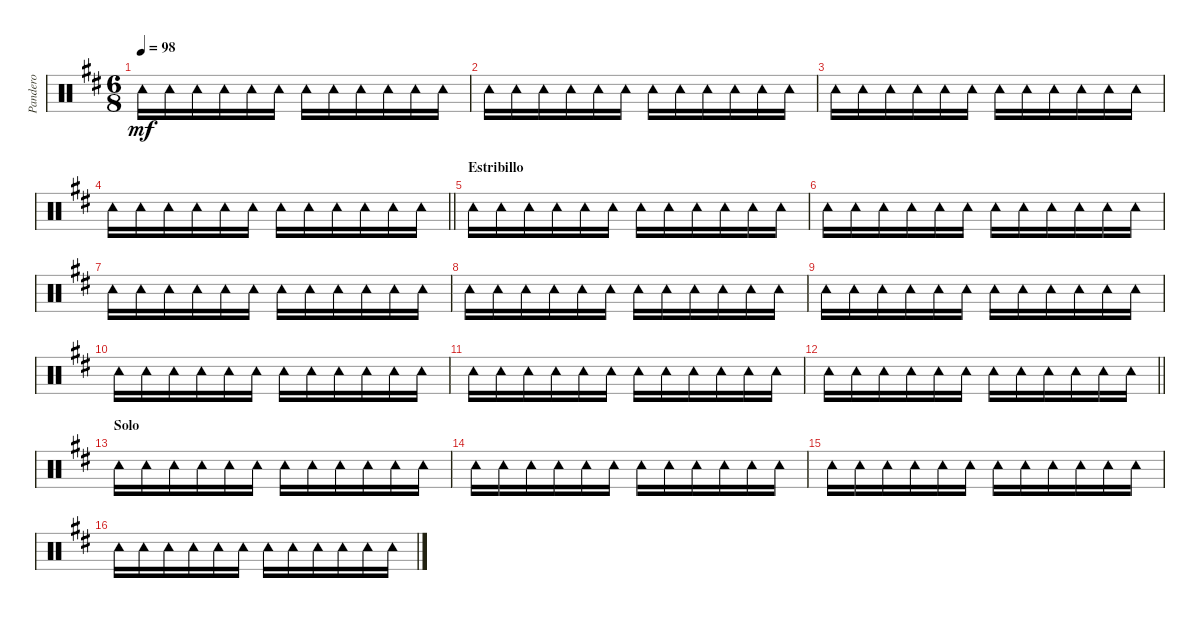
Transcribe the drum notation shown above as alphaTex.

\track ("Pandero" "Pandero") {instrument percussion}
\staff {score}
\articulation defaults
\ts (6 8)
\tempo 98
\clef neutral
\ks d "Tambourine (hit)".16{dy mf} "Tambourine (hit)".16 "Tambourine (hit)".16 "Tambourine (hit)".16 "Tambourine (hit)".16 "Tambourine (hit)".16 "Tambourine (hit)".16 "Tambourine (hit)".16 "Tambourine (hit)".16 "Tambourine (hit)".16 "Tambourine (hit)".16 "Tambourine (hit)".16
|
"Tambourine (hit)".16 "Tambourine (hit)".16 "Tambourine (hit)".16 "Tambourine (hit)".16 "Tambourine (hit)".16 "Tambourine (hit)".16 "Tambourine (hit)".16 "Tambourine (hit)".16 "Tambourine (hit)".16 "Tambourine (hit)".16 "Tambourine (hit)".16 "Tambourine (hit)".16 |
"Tambourine (hit)".16 "Tambourine (hit)".16 "Tambourine (hit)".16 "Tambourine (hit)".16 "Tambourine (hit)".16 "Tambourine (hit)".16 "Tambourine (hit)".16 "Tambourine (hit)".16 "Tambourine (hit)".16 "Tambourine (hit)".16 "Tambourine (hit)".16 "Tambourine (hit)".16 |
\barLineRight lightlight "Tambourine (hit)".16 "Tambourine (hit)".16 "Tambourine (hit)".16 "Tambourine (hit)".16 "Tambourine (hit)".16 "Tambourine (hit)".16 "Tambourine (hit)".16 "Tambourine (hit)".16 "Tambourine (hit)".16 "Tambourine (hit)".16 "Tambourine (hit)".16 "Tambourine (hit)".16
|
\section ("" "Estribillo")
"Tambourine (hit)".16 "Tambourine (hit)".16 "Tambourine (hit)".16 "Tambourine (hit)".16 "Tambourine (hit)".16 "Tambourine (hit)".16 "Tambourine (hit)".16 "Tambourine (hit)".16 "Tambourine (hit)".16 "Tambourine (hit)".16 "Tambourine (hit)".16 "Tambourine (hit)".16 |
"Tambourine (hit)".16 "Tambourine (hit)".16 "Tambourine (hit)".16 "Tambourine (hit)".16 "Tambourine (hit)".16 "Tambourine (hit)".16 "Tambourine (hit)".16 "Tambourine (hit)".16 "Tambourine (hit)".16 "Tambourine (hit)".16 "Tambourine (hit)".16 "Tambourine (hit)".16 |
"Tambourine (hit)".16 "Tambourine (hit)".16 "Tambourine (hit)".16 "Tambourine (hit)".16 "Tambourine (hit)".16 "Tambourine (hit)".16 "Tambourine (hit)".16 "Tambourine (hit)".16 "Tambourine (hit)".16 "Tambourine (hit)".16 "Tambourine (hit)".16 "Tambourine (hit)".16 |
"Tambourine (hit)".16 "Tambourine (hit)".16 "Tambourine (hit)".16 "Tambourine (hit)".16 "Tambourine (hit)".16 "Tambourine (hit)".16 "Tambourine (hit)".16 "Tambourine (hit)".16 "Tambourine (hit)".16 "Tambourine (hit)".16 "Tambourine (hit)".16 "Tambourine (hit)".16 |
"Tambourine (hit)".16 "Tambourine (hit)".16 "Tambourine (hit)".16 "Tambourine (hit)".16 "Tambourine (hit)".16 "Tambourine (hit)".16 "Tambourine (hit)".16 "Tambourine (hit)".16 "Tambourine (hit)".16 "Tambourine (hit)".16 "Tambourine (hit)".16 "Tambourine (hit)".16 |
"Tambourine (hit)".16 "Tambourine (hit)".16 "Tambourine (hit)".16 "Tambourine (hit)".16 "Tambourine (hit)".16 "Tambourine (hit)".16 "Tambourine (hit)".16 "Tambourine (hit)".16 "Tambourine (hit)".16 "Tambourine (hit)".16 "Tambourine (hit)".16 "Tambourine (hit)".16 |
"Tambourine (hit)".16 "Tambourine (hit)".16 "Tambourine (hit)".16 "Tambourine (hit)".16 "Tambourine (hit)".16 "Tambourine (hit)".16 "Tambourine (hit)".16 "Tambourine (hit)".16 "Tambourine (hit)".16 "Tambourine (hit)".16 "Tambourine (hit)".16 "Tambourine (hit)".16 |
\barLineRight lightlight "Tambourine (hit)".16 "Tambourine (hit)".16 "Tambourine (hit)".16 "Tambourine (hit)".16 "Tambourine (hit)".16 "Tambourine (hit)".16 "Tambourine (hit)".16 "Tambourine (hit)".16 "Tambourine (hit)".16 "Tambourine (hit)".16 "Tambourine (hit)".16 "Tambourine (hit)".16
|
\section ("" "Solo")
"Tambourine (hit)".16 "Tambourine (hit)".16 "Tambourine (hit)".16 "Tambourine (hit)".16 "Tambourine (hit)".16 "Tambourine (hit)".16 "Tambourine (hit)".16 "Tambourine (hit)".16 "Tambourine (hit)".16 "Tambourine (hit)".16 "Tambourine (hit)".16 "Tambourine (hit)".16 |
"Tambourine (hit)".16 "Tambourine (hit)".16 "Tambourine (hit)".16 "Tambourine (hit)".16 "Tambourine (hit)".16 "Tambourine (hit)".16 "Tambourine (hit)".16 "Tambourine (hit)".16 "Tambourine (hit)".16 "Tambourine (hit)".16 "Tambourine (hit)".16 "Tambourine (hit)".16 |
"Tambourine (hit)".16 "Tambourine (hit)".16 "Tambourine (hit)".16 "Tambourine (hit)".16 "Tambourine (hit)".16 "Tambourine (hit)".16 "Tambourine (hit)".16 "Tambourine (hit)".16 "Tambourine (hit)".16 "Tambourine (hit)".16 "Tambourine (hit)".16 "Tambourine (hit)".16 |
"Tambourine (hit)".16 "Tambourine (hit)".16 "Tambourine (hit)".16 "Tambourine (hit)".16 "Tambourine (hit)".16 "Tambourine (hit)".16 "Tambourine (hit)".16 "Tambourine (hit)".16 "Tambourine (hit)".16 "Tambourine (hit)".16 "Tambourine (hit)".16 "Tambourine (hit)".16
